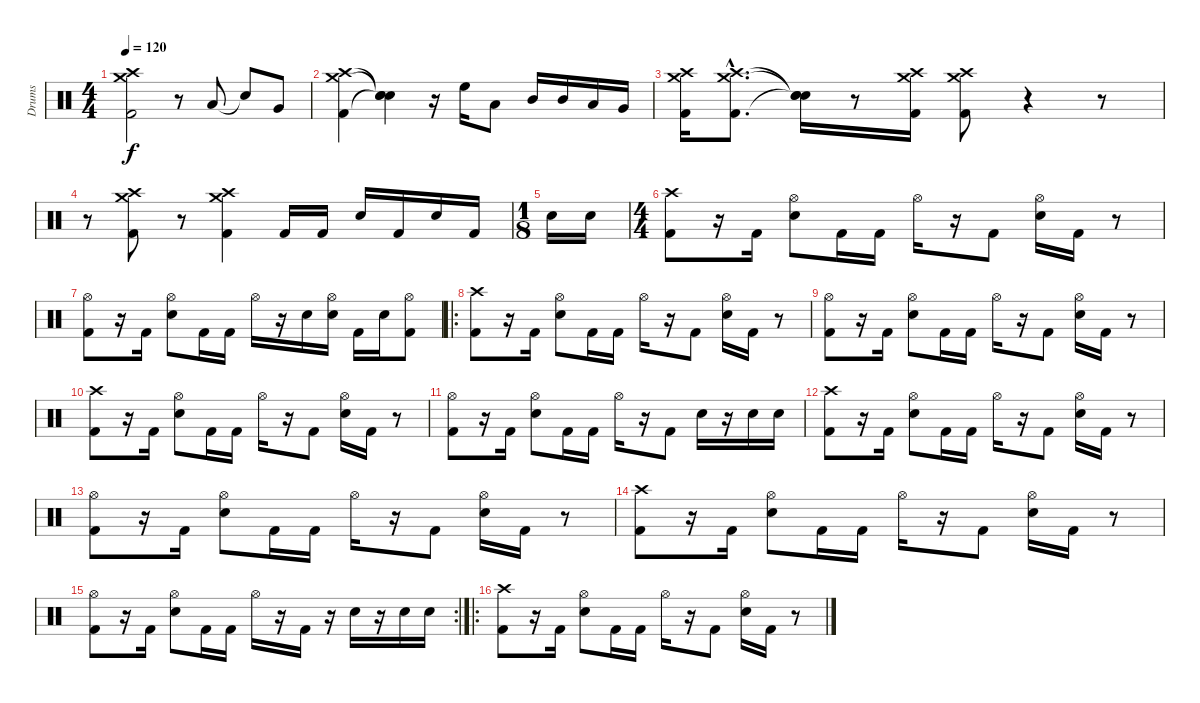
\track ("Drums" "Drums") {instrument percussion}
\staff {score}
\articulation defaults
\ts (4 4)
\tempo 120
\clef neutral
\ks c
("Crash high (hit)" "Crash medium (hit)" "Kick (hit) 2").2{dy f} r.8 "Low Tom (hit)".8 "Snare (hit)"{t}.8 "Very Low Tom (hit)".8 |
("Crash high (hit)" "Crash medium (hit)" "Kick (hit) 2").4 ("Snare (hit)"{t} "Snare (hit)"{t} "Snare (hit)"{t}).4 r.16 "High Floor Tom (hit)".16 "Low Tom (hit)".8 "Mid Tom (hit)".16 "Mid Tom (hit)".16 "Low Tom (hit)".16 "Very Low Tom (hit)".16 |
("Crash high (hit)" "Crash medium (hit)" "Kick (hit) 2").16 ("Crash high (hit)"{hac} "Crash medium (hit)"{hac} "Kick (hit) 2"{hac}).8{d} ("Snare (hit)"{t} "Snare (hit)"{t} "Snare (hit)"{t}).16 r.8 ("Crash high (hit)" "Crash medium (hit)" "Kick (hit) 2").16 ("Crash high (hit)" "Crash medium (hit)" "Kick (hit) 2").8 r.4 r.8 |
r.8 ("Crash high (hit)" "Crash medium (hit)" "Kick (hit) 2").8 r.8 ("Crash high (hit)" "Crash medium (hit)" "Kick (hit) 2").4 "Kick (hit) 2".16 "Kick (hit) 2".16 "Snare (hit) 2".16 "Kick (hit) 2".16 "Snare (hit) 2".16 "Kick (hit) 2".16 |
\ts (1 8)
"Snare (hit) 2".16 "Snare (hit) 2".16 |
\ts (4 4)
("Crash high (hit)" "Kick (hit) 2").8 r.16 "Kick (hit) 2".16 ("Hi-Hat (open)" "Snare (hit) 2").8 "Kick (hit) 2".16 "Kick (hit) 2".16 "Hi-Hat (open)".16 r.16 "Kick (hit) 2".8 ("Hi-Hat (open)" "Snare (hit) 2").16 "Kick (hit) 2".16 r.8 |
("Hi-Hat (open)" "Kick (hit) 2").8 r.16 "Kick (hit) 2".16 ("Hi-Hat (open)" "Snare (hit) 2").8 "Kick (hit) 2".16 "Kick (hit) 2".16 "Hi-Hat (open)".16 r.16 "Snare (hit) 2".16 ("Hi-Hat (open)" "Snare (hit) 2").16 "Kick (hit) 2".16 "Snare (hit) 2".16 ("Hi-Hat (open)" "Kick (hit) 2").8 |
\ro
("Crash high (hit)" "Kick (hit) 2").8 r.16 "Kick (hit) 2".16 ("Hi-Hat (open)" "Snare (hit) 2").8 "Kick (hit) 2".16 "Kick (hit) 2".16 "Hi-Hat (open)".16 r.16 "Kick (hit) 2".8 ("Hi-Hat (open)" "Snare (hit) 2").16 "Kick (hit) 2".16 r.8 |
("Hi-Hat (open)" "Kick (hit) 2").8 r.16 "Kick (hit) 2".16 ("Hi-Hat (open)" "Snare (hit) 2").8 "Kick (hit) 2".16 "Kick (hit) 2".16 "Hi-Hat (open)".16 r.16 "Kick (hit) 2".8 ("Hi-Hat (open)" "Snare (hit) 2").16 "Kick (hit) 2".16 r.8 |
("Crash high (hit)" "Kick (hit) 2").8 r.16 "Kick (hit) 2".16 ("Hi-Hat (open)" "Snare (hit) 2").8 "Kick (hit) 2".16 "Kick (hit) 2".16 "Hi-Hat (open)".16 r.16 "Kick (hit) 2".8 ("Hi-Hat (open)" "Snare (hit) 2").16 "Kick (hit) 2".16 r.8 |
("Hi-Hat (open)" "Kick (hit) 2").8 r.16 "Kick (hit) 2".16 ("Hi-Hat (open)" "Snare (hit) 2").8 "Kick (hit) 2".16 "Kick (hit) 2".16 "Hi-Hat (open)".16 r.16 "Kick (hit) 2".8 "Snare (hit) 2".16 r.16 "Snare (hit) 2".16 "Snare (hit) 2".16 |
("Crash high (hit)" "Kick (hit) 2").8 r.16 "Kick (hit) 2".16 ("Hi-Hat (open)" "Snare (hit) 2").8 "Kick (hit) 2".16 "Kick (hit) 2".16 "Hi-Hat (open)".16 r.16 "Kick (hit) 2".8 ("Hi-Hat (open)" "Snare (hit) 2").16 "Kick (hit) 2".16 r.8 |
("Hi-Hat (open)" "Kick (hit) 2").8 r.16 "Kick (hit) 2".16 ("Hi-Hat (open)" "Snare (hit) 2").8 "Kick (hit) 2".16 "Kick (hit) 2".16 "Hi-Hat (open)".16 r.16 "Kick (hit) 2".8 ("Hi-Hat (open)" "Snare (hit) 2").16 "Kick (hit) 2".16 r.8 |
("Crash high (hit)" "Kick (hit) 2").8 r.16 "Kick (hit) 2".16 ("Hi-Hat (open)" "Snare (hit) 2").8 "Kick (hit) 2".16 "Kick (hit) 2".16 "Hi-Hat (open)".16 r.16 "Kick (hit) 2".8 ("Hi-Hat (open)" "Snare (hit) 2").16 "Kick (hit) 2".16 r.8 |
\rc 2
("Hi-Hat (open)" "Kick (hit) 2").8 r.16 "Kick (hit) 2".16 ("Hi-Hat (open)" "Snare (hit) 2").8 "Kick (hit) 2".16 "Kick (hit) 2".16 "Hi-Hat (open)".16 r.16 "Kick (hit) 2".16 r.16 "Snare (hit) 2".16 r.16 "Snare (hit) 2".16 "Snare (hit) 2".16 |
\ro
("Crash high (hit)" "Kick (hit) 2").8 r.16 "Kick (hit) 2".16 ("Hi-Hat (open)" "Snare (hit) 2").8 "Kick (hit) 2".16 "Kick (hit) 2".16 "Hi-Hat (open)".16 r.16 "Kick (hit) 2".8 ("Hi-Hat (open)" "Snare (hit) 2").16 "Kick (hit) 2".16 r.8
